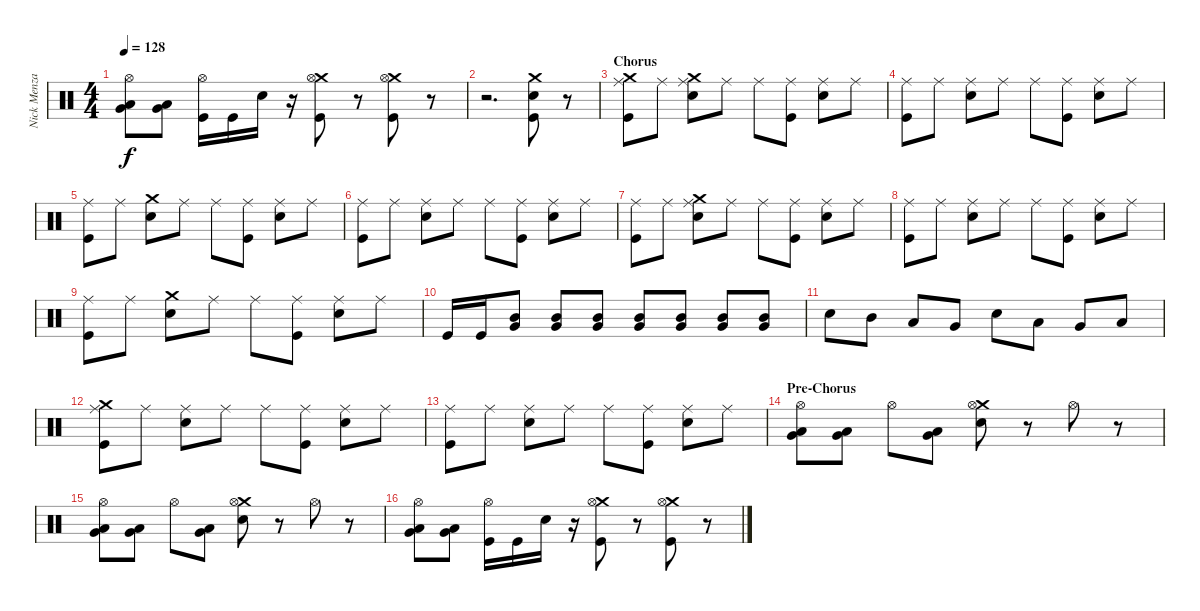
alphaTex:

\track ("Nick Menza" "Nick Menza") {instrument percussion}
\staff {score}
\articulation defaults
\ts (4 4)
\tempo 128
\clef neutral
\ks c
("Low Tom (hit)" "Very Low Tom (hit)" "Hi-Hat (open)").8{dy f} ("Very Low Tom (hit)" "Low Tom (hit)").8 ("Kick (hit)" "Hi-Hat (open)").16 "Kick (hit)".16 "Electric Snare (hit)".16 r.16 ("Kick (hit)" "Crash medium (hit)" "Hi-Hat (open)").8 r.8 ("Kick (hit)" "Crash medium (hit)" "Hi-Hat (open)").8 r.8 |
r.2{d} ("Kick (hit)" "Electric Snare (hit)" "Crash medium (hit)").8 r.8 |
\section ("" "Chorus")
("Crash medium (hit)" "Ride (middle)" "Kick (hit)").8 "Ride (middle)".8 ("Crash medium (hit)" "Ride (middle)" "Electric Snare (hit)").8 "Ride (middle)".8 "Ride (middle)".8 ("Kick (hit)" "Ride (middle)").8 ("Ride (middle)" "Electric Snare (hit)").8 "Ride (middle)".8 |
("Ride (middle)" "Kick (hit)").8 "Ride (middle)".8 ("Electric Snare (hit)" "Ride (middle)").8 "Ride (middle)".8 "Ride (middle)".8 ("Kick (hit)" "Ride (middle)").8 ("Ride (middle)" "Electric Snare (hit)").8 "Ride (middle)".8 |
("Ride (middle)" "Kick (hit)").8 "Ride (middle)".8 ("Crash medium (hit)" "Electric Snare (hit)").8 "Ride (middle)".8 "Ride (middle)".8 ("Kick (hit)" "Ride (middle)").8 ("Ride (middle)" "Electric Snare (hit)").8 "Ride (middle)".8 |
("Ride (middle)" "Kick (hit)").8 "Ride (middle)".8 ("Electric Snare (hit)" "Ride (middle)").8 "Ride (middle)".8 "Ride (middle)".8 ("Kick (hit)" "Ride (middle)").8 ("Ride (middle)" "Electric Snare (hit)").8 "Ride (middle)".8 |
("Ride (middle)" "Kick (hit)").8 "Ride (middle)".8 ("Crash medium (hit)" "Ride (middle)" "Electric Snare (hit)").8 "Ride (middle)".8 "Ride (middle)".8 ("Kick (hit)" "Ride (middle)").8 ("Ride (middle)" "Electric Snare (hit)").8 "Ride (middle)".8 |
("Ride (middle)" "Kick (hit)").8 "Ride (middle)".8 ("Electric Snare (hit)" "Ride (middle)").8 "Ride (middle)".8 "Ride (middle)".8 ("Kick (hit)" "Ride (middle)").8 ("Ride (middle)" "Electric Snare (hit)").8 "Ride (middle)".8 |
("Ride (middle)" "Kick (hit)").8 "Ride (middle)".8 ("Crash medium (hit)" "Electric Snare (hit)").8 "Ride (middle)".8 "Ride (middle)".8 ("Kick (hit)" "Ride (middle)").8 ("Ride (middle)" "Electric Snare (hit)").8 "Ride (middle)".8 |
"Kick (hit)".16 "Kick (hit)".16 ("Mid Tom (hit)" "Very Low Tom (hit)").8 ("Mid Tom (hit)" "Very Low Tom (hit)").8 ("Mid Tom (hit)" "Very Low Tom (hit)").8 ("Mid Tom (hit)" "Very Low Tom (hit)").8 ("Mid Tom (hit)" "Very Low Tom (hit)").8 ("Mid Tom (hit)" "Very Low Tom (hit)").8 ("Mid Tom (hit)" "Very Low Tom (hit)").8 |
"Electric Snare (hit)".8 "Mid Tom (hit)".8 "Low Tom (hit)".8 "Very Low Tom (hit)".8 "Electric Snare (hit)".8 "Low Tom (hit)".8 "Very Low Tom (hit)".8 "Low Floor Tom (hit)".8 |
("Crash medium (hit)" "Ride (middle)" "Kick (hit)").8 "Ride (middle)".8 ("Ride (middle)" "Electric Snare (hit)").8 "Ride (middle)".8 "Ride (middle)".8 ("Kick (hit)" "Ride (middle)").8 ("Ride (middle)" "Electric Snare (hit)").8 "Ride (middle)".8 |
("Ride (middle)" "Kick (hit)").8 "Ride (middle)".8 ("Electric Snare (hit)" "Ride (middle)").8 "Ride (middle)".8 "Ride (middle)".8 ("Kick (hit)" "Ride (middle)").8 ("Ride (middle)" "Electric Snare (hit)").8 "Ride (middle)".8 |
\section ("" "Pre-Chorus")
("Low Tom (hit)" "Very Low Tom (hit)" "Hi-Hat (open)").8 ("Very Low Tom (hit)" "Low Tom (hit)").8 "Hi-Hat (open)".8 ("Low Tom (hit)" "Very Low Tom (hit)").8 ("Electric Snare (hit)" "Crash medium (hit)" "Hi-Hat (open)").8 r.8 "Hi-Hat (open)".8 r.8 |
("Low Tom (hit)" "Very Low Tom (hit)" "Hi-Hat (open)").8 ("Very Low Tom (hit)" "Low Tom (hit)").8 "Hi-Hat (open)".8 ("Low Tom (hit)" "Very Low Tom (hit)").8 ("Electric Snare (hit)" "Crash medium (hit)" "Hi-Hat (open)").8 r.8 "Hi-Hat (open)".8 r.8 |
("Low Tom (hit)" "Very Low Tom (hit)" "Hi-Hat (open)").8 ("Very Low Tom (hit)" "Low Tom (hit)").8 ("Kick (hit)" "Hi-Hat (open)").16 "Kick (hit)".16 "Electric Snare (hit)".16 r.16 ("Kick (hit)" "Crash medium (hit)" "Hi-Hat (open)").8 r.8 ("Kick (hit)" "Crash medium (hit)" "Hi-Hat (open)").8 r.8
